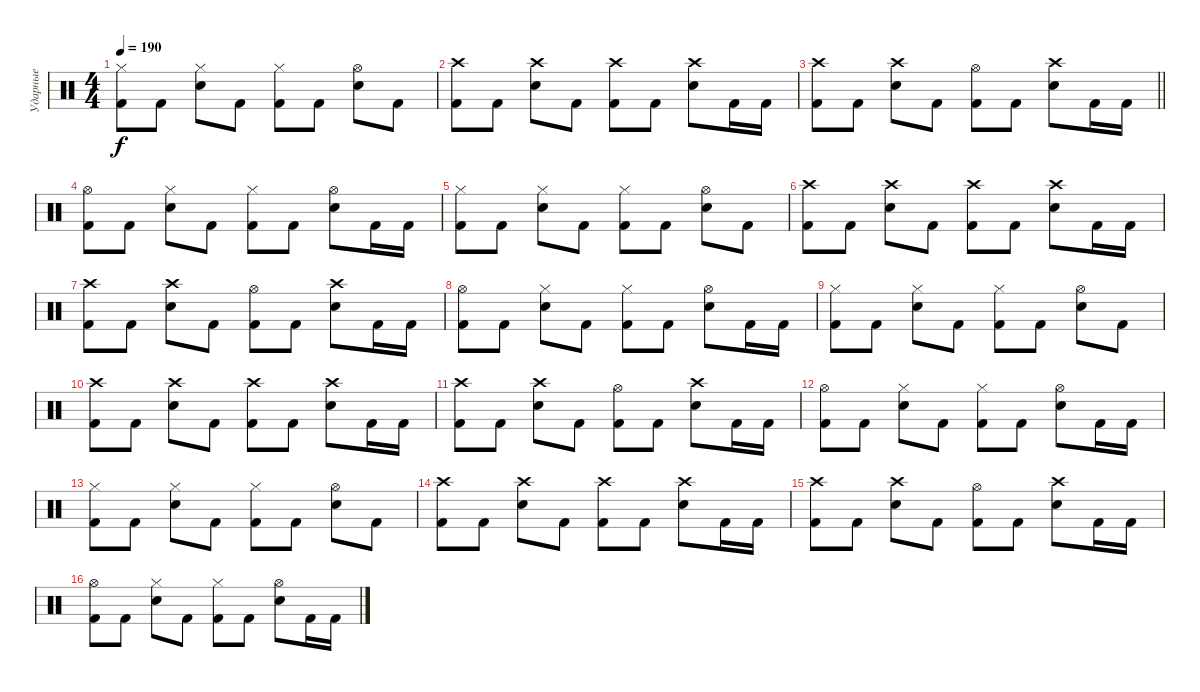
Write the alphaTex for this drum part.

\track ("Ударные" "Ударные") {instrument percussion}
\staff {score}
\articulation defaults
\ts (4 4)
\tempo 190
\clef neutral
\ks c
("Hi-Hat (closed)" "Kick (hit) 2").8{dy f} "Kick (hit) 2".8 ("Hi-Hat (closed)" "Snare (hit) 2").8 "Kick (hit) 2".8 ("Hi-Hat (closed)" "Kick (hit) 2").8 "Kick (hit) 2".8 ("Hi-Hat (open)" "Snare (hit) 2").8 "Kick (hit) 2".8 |
("Crash high (hit)" "Kick (hit) 2").8 "Kick (hit) 2".8 ("Crash high (hit)" "Snare (hit) 2").8 "Kick (hit) 2".8 ("Crash high (hit)" "Kick (hit) 2").8 "Kick (hit) 2".8 ("Crash high (hit)" "Snare (hit) 2").8 "Kick (hit) 2".16 "Kick (hit) 2".16 |
\barLineRight lightlight
("Crash high (hit)" "Kick (hit) 2").8 "Kick (hit) 2".8 ("Crash high (hit)" "Snare (hit) 2").8 "Kick (hit) 2".8 ("Hi-Hat (open)" "Kick (hit) 2").8 "Kick (hit) 2".8 ("Crash high (hit)" "Snare (hit) 2").8 "Kick (hit) 2".16 "Kick (hit) 2".16 |
("Hi-Hat (open)" "Kick (hit) 2").8 "Kick (hit) 2".8 ("Hi-Hat (closed)" "Snare (hit) 2").8 "Kick (hit) 2".8 ("Hi-Hat (closed)" "Kick (hit) 2").8 "Kick (hit) 2".8 ("Hi-Hat (open)" "Snare (hit) 2").8 "Kick (hit) 2".16 "Kick (hit) 2".16 |
("Hi-Hat (closed)" "Kick (hit) 2").8 "Kick (hit) 2".8 ("Hi-Hat (closed)" "Snare (hit) 2").8 "Kick (hit) 2".8 ("Hi-Hat (closed)" "Kick (hit) 2").8 "Kick (hit) 2".8 ("Hi-Hat (open)" "Snare (hit) 2").8 "Kick (hit) 2".8 |
("Crash high (hit)" "Kick (hit) 2").8 "Kick (hit) 2".8 ("Crash high (hit)" "Snare (hit) 2").8 "Kick (hit) 2".8 ("Crash high (hit)" "Kick (hit) 2").8 "Kick (hit) 2".8 ("Crash high (hit)" "Snare (hit) 2").8 "Kick (hit) 2".16 "Kick (hit) 2".16 |
("Crash high (hit)" "Kick (hit) 2").8 "Kick (hit) 2".8 ("Crash high (hit)" "Snare (hit) 2").8 "Kick (hit) 2".8 ("Hi-Hat (open)" "Kick (hit) 2").8 "Kick (hit) 2".8 ("Crash high (hit)" "Snare (hit) 2").8 "Kick (hit) 2".16 "Kick (hit) 2".16 |
("Hi-Hat (open)" "Kick (hit) 2").8 "Kick (hit) 2".8 ("Hi-Hat (closed)" "Snare (hit) 2").8 "Kick (hit) 2".8 ("Hi-Hat (closed)" "Kick (hit) 2").8 "Kick (hit) 2".8 ("Hi-Hat (open)" "Snare (hit) 2").8 "Kick (hit) 2".16 "Kick (hit) 2".16 |
("Hi-Hat (closed)" "Kick (hit) 2").8 "Kick (hit) 2".8 ("Hi-Hat (closed)" "Snare (hit) 2").8 "Kick (hit) 2".8 ("Hi-Hat (closed)" "Kick (hit) 2").8 "Kick (hit) 2".8 ("Hi-Hat (open)" "Snare (hit) 2").8 "Kick (hit) 2".8 |
("Crash high (hit)" "Kick (hit) 2").8 "Kick (hit) 2".8 ("Crash high (hit)" "Snare (hit) 2").8 "Kick (hit) 2".8 ("Crash high (hit)" "Kick (hit) 2").8 "Kick (hit) 2".8 ("Crash high (hit)" "Snare (hit) 2").8 "Kick (hit) 2".16 "Kick (hit) 2".16 |
("Crash high (hit)" "Kick (hit) 2").8 "Kick (hit) 2".8 ("Crash high (hit)" "Snare (hit) 2").8 "Kick (hit) 2".8 ("Hi-Hat (open)" "Kick (hit) 2").8 "Kick (hit) 2".8 ("Crash high (hit)" "Snare (hit) 2").8 "Kick (hit) 2".16 "Kick (hit) 2".16 |
("Hi-Hat (open)" "Kick (hit) 2").8 "Kick (hit) 2".8 ("Hi-Hat (closed)" "Snare (hit) 2").8 "Kick (hit) 2".8 ("Hi-Hat (closed)" "Kick (hit) 2").8 "Kick (hit) 2".8 ("Hi-Hat (open)" "Snare (hit) 2").8 "Kick (hit) 2".16 "Kick (hit) 2".16 |
("Hi-Hat (closed)" "Kick (hit) 2").8 "Kick (hit) 2".8 ("Hi-Hat (closed)" "Snare (hit) 2").8 "Kick (hit) 2".8 ("Hi-Hat (closed)" "Kick (hit) 2").8 "Kick (hit) 2".8 ("Hi-Hat (open)" "Snare (hit) 2").8 "Kick (hit) 2".8 |
("Crash high (hit)" "Kick (hit) 2").8 "Kick (hit) 2".8 ("Crash high (hit)" "Snare (hit) 2").8 "Kick (hit) 2".8 ("Crash high (hit)" "Kick (hit) 2").8 "Kick (hit) 2".8 ("Crash high (hit)" "Snare (hit) 2").8 "Kick (hit) 2".16 "Kick (hit) 2".16 |
("Crash high (hit)" "Kick (hit) 2").8 "Kick (hit) 2".8 ("Crash high (hit)" "Snare (hit) 2").8 "Kick (hit) 2".8 ("Hi-Hat (open)" "Kick (hit) 2").8 "Kick (hit) 2".8 ("Crash high (hit)" "Snare (hit) 2").8 "Kick (hit) 2".16 "Kick (hit) 2".16 |
("Hi-Hat (open)" "Kick (hit) 2").8 "Kick (hit) 2".8 ("Hi-Hat (closed)" "Snare (hit) 2").8 "Kick (hit) 2".8 ("Hi-Hat (closed)" "Kick (hit) 2").8 "Kick (hit) 2".8 ("Hi-Hat (open)" "Snare (hit) 2").8 "Kick (hit) 2".16 "Kick (hit) 2".16
